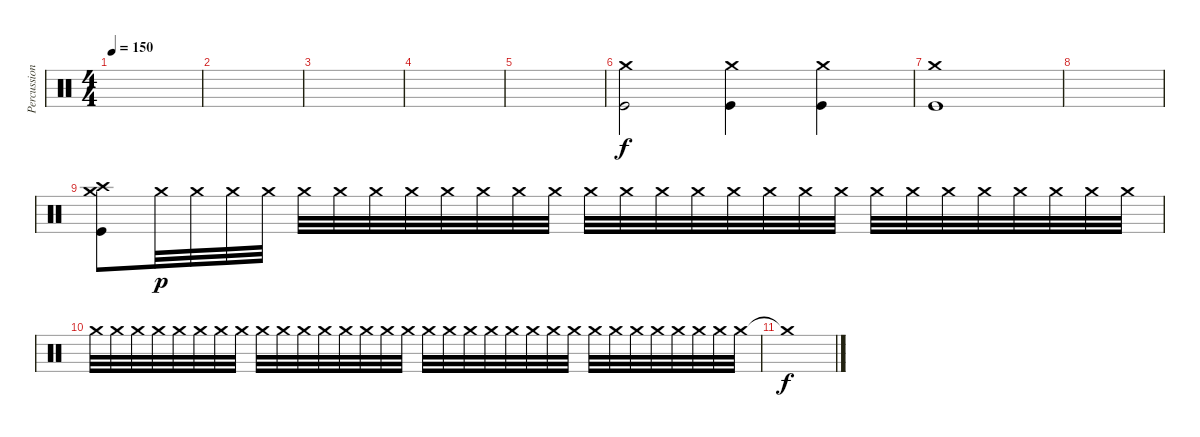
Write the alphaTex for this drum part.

\track ("Percussion" "Percussion") {instrument percussion}
\staff {score}
\articulation defaults
\ts (4 4)
\tempo 150
\clef neutral
\ks c
|
|
|
|
|
("Crash medium (hit)" "Kick (hit)").2 ("Crash medium (hit)" "Kick (hit)").4 ("Crash medium (hit)" "Kick (hit)").4 |
("Crash medium (hit)" "Kick (hit)").1 |
|
("Crash high (hit)" "Crash medium (hit)" "Kick (hit)").8 "Crash medium (hit)".32{dy p} "Crash medium (hit)".32 "Crash medium (hit)".32 "Crash medium (hit)".32 "Crash medium (hit)".32 "Crash medium (hit)".32 "Crash medium (hit)".32 "Crash medium (hit)".32 "Crash medium (hit)".32 "Crash medium (hit)".32 "Crash medium (hit)".32 "Crash medium (hit)".32 "Crash medium (hit)".32 "Crash medium (hit)".32 "Crash medium (hit)".32 "Crash medium (hit)".32 "Crash medium (hit)".32 "Crash medium (hit)".32 "Crash medium (hit)".32 "Crash medium (hit)".32 "Crash medium (hit)".32 "Crash medium (hit)".32 "Crash medium (hit)".32 "Crash medium (hit)".32 "Crash medium (hit)".32 "Crash medium (hit)".32 "Crash medium (hit)".32 "Crash medium (hit)".32 |
"Crash medium (hit)".32 "Crash medium (hit)".32 "Crash medium (hit)".32 "Crash medium (hit)".32 "Crash medium (hit)".32 "Crash medium (hit)".32 "Crash medium (hit)".32 "Crash medium (hit)".32 "Crash medium (hit)".32 "Crash medium (hit)".32 "Crash medium (hit)".32 "Crash medium (hit)".32 "Crash medium (hit)".32 "Crash medium (hit)".32 "Crash medium (hit)".32 "Crash medium (hit)".32 "Crash medium (hit)".32 "Crash medium (hit)".32 "Crash medium (hit)".32 "Crash medium (hit)".32 "Crash medium (hit)".32 "Crash medium (hit)".32 "Crash medium (hit)".32 "Crash medium (hit)".32 "Crash medium (hit)".32 "Crash medium (hit)".32 "Crash medium (hit)".32 "Crash medium (hit)".32 "Crash medium (hit)".32 "Crash medium (hit)".32 "Crash medium (hit)".32 "Crash medium (hit)".32 |
"Crash medium (hit)"{t}.1{dy f}
